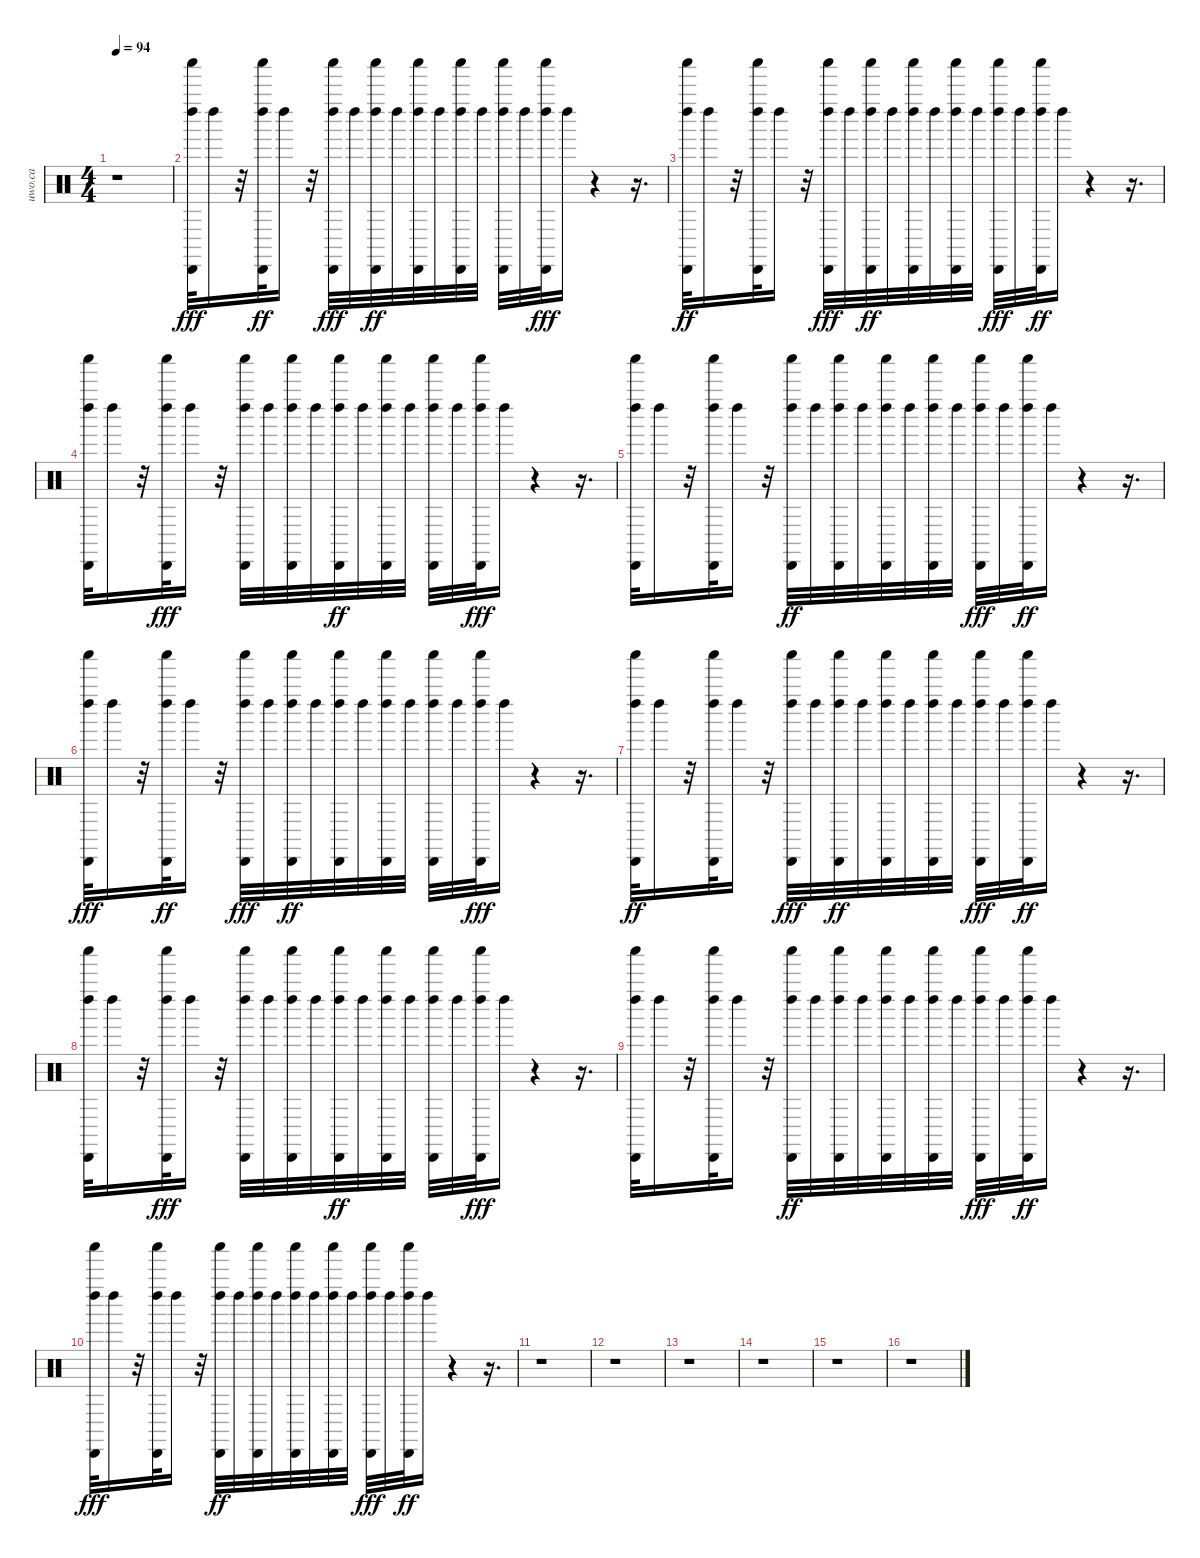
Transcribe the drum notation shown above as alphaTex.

\track ("uwo.ca" "uwo.ca") {instrument percussion}
\staff {score}
\articulation defaults
\ts (4 4)
\tempo 94
\clef neutral
\ks c
r.1{dy fff} |
("Shaker (hit)" "Cabasa (hit)" "Left Maraca (hit)").32 "Left Maraca (hit)".16 r.32 ("Shaker (hit)" "Cabasa (hit)" "Left Maraca (hit)").32{dy ff} "Left Maraca (hit)".16 r.32 ("Shaker (hit)" "Cabasa (hit)" "Left Maraca (hit)").32{dy fff} "Left Maraca (hit)".32 ("Shaker (hit)" "Cabasa (hit)" "Left Maraca (hit)").32{dy ff} "Left Maraca (hit)".32 ("Cabasa (hit)" "Shaker (hit)" "Left Maraca (hit)").32 "Left Maraca (hit)".32 ("Cabasa (hit)" "Shaker (hit)" "Left Maraca (hit)").32 "Left Maraca (hit)".32 ("Cabasa (hit)" "Shaker (hit)" "Left Maraca (hit)").32 "Left Maraca (hit)".32 ("Cabasa (hit)" "Shaker (hit)" "Left Maraca (hit)").32{dy fff} "Left Maraca (hit)".16 r.4 r.16{d} |
("Shaker (hit)" "Cabasa (hit)" "Left Maraca (hit)").32{dy ff} "Left Maraca (hit)".16 r.32 ("Shaker (hit)" "Cabasa (hit)" "Left Maraca (hit)").32 "Left Maraca (hit)".16 r.32 ("Shaker (hit)" "Cabasa (hit)" "Left Maraca (hit)").32{dy fff} "Left Maraca (hit)".32 ("Shaker (hit)" "Cabasa (hit)" "Left Maraca (hit)").32{dy ff} "Left Maraca (hit)".32 ("Cabasa (hit)" "Shaker (hit)" "Left Maraca (hit)").32 "Left Maraca (hit)".32 ("Cabasa (hit)" "Shaker (hit)" "Left Maraca (hit)").32 "Left Maraca (hit)".32 ("Cabasa (hit)" "Shaker (hit)" "Left Maraca (hit)").32{dy fff} "Left Maraca (hit)".32 ("Cabasa (hit)" "Shaker (hit)" "Left Maraca (hit)").32{dy ff} "Left Maraca (hit)".16 r.4 r.16{d} |
("Shaker (hit)" "Cabasa (hit)" "Left Maraca (hit)").32 "Left Maraca (hit)".16 r.32 ("Shaker (hit)" "Cabasa (hit)" "Left Maraca (hit)").32{dy fff} "Left Maraca (hit)".16 r.32 ("Shaker (hit)" "Cabasa (hit)" "Left Maraca (hit)").32 "Left Maraca (hit)".32 ("Shaker (hit)" "Cabasa (hit)" "Left Maraca (hit)").32 "Left Maraca (hit)".32 ("Cabasa (hit)" "Shaker (hit)" "Left Maraca (hit)").32{dy ff} "Left Maraca (hit)".32 ("Cabasa (hit)" "Shaker (hit)" "Left Maraca (hit)").32 "Left Maraca (hit)".32 ("Cabasa (hit)" "Shaker (hit)" "Left Maraca (hit)").32 "Left Maraca (hit)".32 ("Cabasa (hit)" "Shaker (hit)" "Left Maraca (hit)").32{dy fff} "Left Maraca (hit)".16 r.4 r.16{d} |
("Shaker (hit)" "Cabasa (hit)" "Left Maraca (hit)").32 "Left Maraca (hit)".16 r.32 ("Shaker (hit)" "Cabasa (hit)" "Left Maraca (hit)").32 "Left Maraca (hit)".16 r.32 ("Shaker (hit)" "Cabasa (hit)" "Left Maraca (hit)").32{dy ff} "Left Maraca (hit)".32 ("Cabasa (hit)" "Shaker (hit)" "Left Maraca (hit)").32 "Left Maraca (hit)".32 ("Cabasa (hit)" "Shaker (hit)" "Left Maraca (hit)").32 "Left Maraca (hit)".32 ("Cabasa (hit)" "Shaker (hit)" "Left Maraca (hit)").32 "Left Maraca (hit)".32 ("Cabasa (hit)" "Shaker (hit)" "Left Maraca (hit)").32{dy fff} "Left Maraca (hit)".32 ("Shaker (hit)" "Cabasa (hit)" "Left Maraca (hit)").32{dy ff} "Left Maraca (hit)".16 r.4 r.16{d} |
("Shaker (hit)" "Cabasa (hit)" "Left Maraca (hit)").32{dy fff} "Left Maraca (hit)".16 r.32 ("Shaker (hit)" "Cabasa (hit)" "Left Maraca (hit)").32{dy ff} "Left Maraca (hit)".16 r.32 ("Shaker (hit)" "Cabasa (hit)" "Left Maraca (hit)").32{dy fff} "Left Maraca (hit)".32 ("Shaker (hit)" "Cabasa (hit)" "Left Maraca (hit)").32{dy ff} "Left Maraca (hit)".32 ("Cabasa (hit)" "Shaker (hit)" "Left Maraca (hit)").32 "Left Maraca (hit)".32 ("Cabasa (hit)" "Shaker (hit)" "Left Maraca (hit)").32 "Left Maraca (hit)".32 ("Cabasa (hit)" "Shaker (hit)" "Left Maraca (hit)").32 "Left Maraca (hit)".32 ("Cabasa (hit)" "Shaker (hit)" "Left Maraca (hit)").32{dy fff} "Left Maraca (hit)".16 r.4 r.16{d} |
("Shaker (hit)" "Cabasa (hit)" "Left Maraca (hit)").32{dy ff} "Left Maraca (hit)".16 r.32 ("Shaker (hit)" "Cabasa (hit)" "Left Maraca (hit)").32 "Left Maraca (hit)".16 r.32 ("Shaker (hit)" "Cabasa (hit)" "Left Maraca (hit)").32{dy fff} "Left Maraca (hit)".32 ("Shaker (hit)" "Cabasa (hit)" "Left Maraca (hit)").32{dy ff} "Left Maraca (hit)".32 ("Cabasa (hit)" "Shaker (hit)" "Left Maraca (hit)").32 "Left Maraca (hit)".32 ("Cabasa (hit)" "Shaker (hit)" "Left Maraca (hit)").32 "Left Maraca (hit)".32 ("Cabasa (hit)" "Shaker (hit)" "Left Maraca (hit)").32{dy fff} "Left Maraca (hit)".32 ("Cabasa (hit)" "Shaker (hit)" "Left Maraca (hit)").32{dy ff} "Left Maraca (hit)".16 r.4 r.16{d} |
("Shaker (hit)" "Cabasa (hit)" "Left Maraca (hit)").32 "Left Maraca (hit)".16 r.32 ("Shaker (hit)" "Cabasa (hit)" "Left Maraca (hit)").32{dy fff} "Left Maraca (hit)".16 r.32 ("Shaker (hit)" "Cabasa (hit)" "Left Maraca (hit)").32 "Left Maraca (hit)".32 ("Shaker (hit)" "Cabasa (hit)" "Left Maraca (hit)").32 "Left Maraca (hit)".32 ("Cabasa (hit)" "Shaker (hit)" "Left Maraca (hit)").32{dy ff} "Left Maraca (hit)".32 ("Cabasa (hit)" "Shaker (hit)" "Left Maraca (hit)").32 "Left Maraca (hit)".32 ("Cabasa (hit)" "Shaker (hit)" "Left Maraca (hit)").32 "Left Maraca (hit)".32 ("Cabasa (hit)" "Shaker (hit)" "Left Maraca (hit)").32{dy fff} "Left Maraca (hit)".16 r.4 r.16{d} |
("Shaker (hit)" "Cabasa (hit)" "Left Maraca (hit)").32 "Left Maraca (hit)".16 r.32 ("Shaker (hit)" "Cabasa (hit)" "Left Maraca (hit)").32 "Left Maraca (hit)".16 r.32 ("Shaker (hit)" "Cabasa (hit)" "Left Maraca (hit)").32{dy ff} "Left Maraca (hit)".32 ("Cabasa (hit)" "Shaker (hit)" "Left Maraca (hit)").32 "Left Maraca (hit)".32 ("Cabasa (hit)" "Shaker (hit)" "Left Maraca (hit)").32 "Left Maraca (hit)".32 ("Cabasa (hit)" "Shaker (hit)" "Left Maraca (hit)").32 "Left Maraca (hit)".32 ("Cabasa (hit)" "Shaker (hit)" "Left Maraca (hit)").32{dy fff} "Left Maraca (hit)".32 ("Shaker (hit)" "Cabasa (hit)" "Left Maraca (hit)").32{dy ff} "Left Maraca (hit)".16 r.4 r.16{d} |
("Shaker (hit)" "Cabasa (hit)" "Left Maraca (hit)").32{dy fff} "Left Maraca (hit)".16 r.32 ("Shaker (hit)" "Cabasa (hit)" "Left Maraca (hit)").32 "Left Maraca (hit)".16 r.32 ("Shaker (hit)" "Cabasa (hit)" "Left Maraca (hit)").32{dy ff} "Left Maraca (hit)".32 ("Cabasa (hit)" "Shaker (hit)" "Left Maraca (hit)").32 "Left Maraca (hit)".32 ("Cabasa (hit)" "Shaker (hit)" "Left Maraca (hit)").32 "Left Maraca (hit)".32 ("Cabasa (hit)" "Shaker (hit)" "Left Maraca (hit)").32 "Left Maraca (hit)".32 ("Cabasa (hit)" "Shaker (hit)" "Left Maraca (hit)").32{dy fff} "Left Maraca (hit)".32 ("Shaker (hit)" "Cabasa (hit)" "Left Maraca (hit)").32{dy ff} "Left Maraca (hit)".16 r.4 r.16{d} |
r.1 |
r.1 |
r.1 |
r.1 |
r.1 |
r.1
